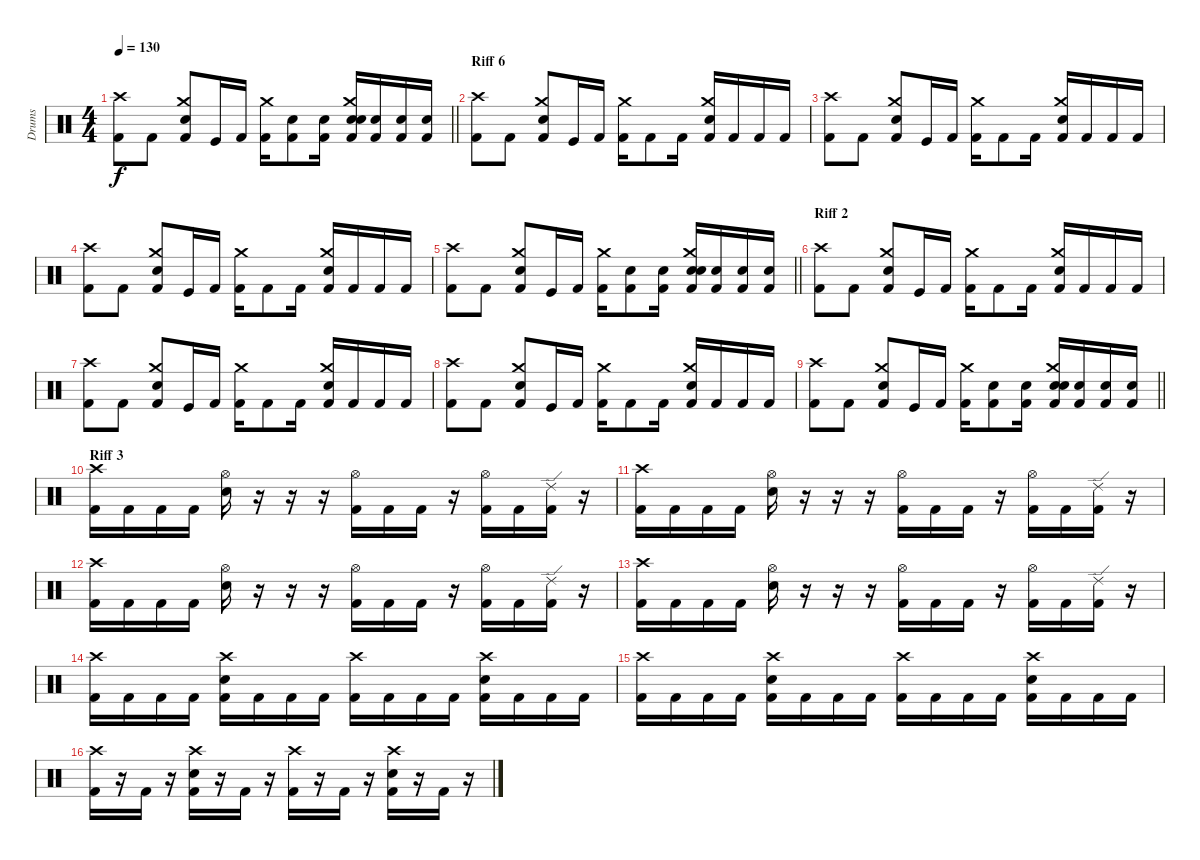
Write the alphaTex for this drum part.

\track ("Drums" "Drums") {instrument percussion}
\staff {score}
\articulation defaults
\ts (4 4)
\tempo 130
\clef neutral
\barLineRight lightlight
\ks c
("Crash high (hit)" "Kick (hit) 2").8{dy f} "Kick (hit) 2".8 ("Crash medium (hit)" "Electric Snare (hit)" "Kick (hit) 2").8 "Kick (hit)".16 "Kick (hit) 2".16 ("Crash medium (hit)" "Kick (hit) 2").16 ("Electric Snare (hit)" "Kick (hit) 2").8 ("Electric Snare (hit)" "Kick (hit) 2").16 ("Crash medium (hit)" "Electric Snare (hit)" "Electric Snare (hit)" "Kick (hit) 2").16 ("Electric Snare (hit)" "Kick (hit) 2").16 ("Electric Snare (hit)" "Kick (hit) 2").16 ("Electric Snare (hit)" "Kick (hit) 2").16 |
\section ("" "Riff 6")
("Crash high (hit)" "Kick (hit) 2").8 "Kick (hit) 2".8 ("Crash medium (hit)" "Electric Snare (hit)" "Kick (hit) 2").8 "Kick (hit)".16 "Kick (hit) 2".16 ("Crash medium (hit)" "Kick (hit) 2").16 "Kick (hit) 2".8 "Kick (hit) 2".16 ("Crash medium (hit)" "Electric Snare (hit)" "Kick (hit) 2").16 "Kick (hit) 2".16 "Kick (hit) 2".16 "Kick (hit) 2".16 |
("Crash high (hit)" "Kick (hit) 2").8 "Kick (hit) 2".8 ("Crash medium (hit)" "Electric Snare (hit)" "Kick (hit) 2").8 "Kick (hit)".16 "Kick (hit) 2".16 ("Crash medium (hit)" "Kick (hit) 2").16 "Kick (hit) 2".8 "Kick (hit) 2".16 ("Crash medium (hit)" "Electric Snare (hit)" "Kick (hit) 2").16 "Kick (hit) 2".16 "Kick (hit) 2".16 "Kick (hit) 2".16 |
("Crash high (hit)" "Kick (hit) 2").8 "Kick (hit) 2".8 ("Crash medium (hit)" "Electric Snare (hit)" "Kick (hit) 2").8 "Kick (hit)".16 "Kick (hit) 2".16 ("Crash medium (hit)" "Kick (hit) 2").16 "Kick (hit) 2".8 "Kick (hit) 2".16 ("Crash medium (hit)" "Electric Snare (hit)" "Kick (hit) 2").16 "Kick (hit) 2".16 "Kick (hit) 2".16 "Kick (hit) 2".16 |
\barLineRight lightlight
("Crash high (hit)" "Kick (hit) 2").8 "Kick (hit) 2".8 ("Crash medium (hit)" "Electric Snare (hit)" "Kick (hit) 2").8 "Kick (hit)".16 "Kick (hit) 2".16 ("Crash medium (hit)" "Kick (hit) 2").16 ("Electric Snare (hit)" "Kick (hit) 2").8 ("Electric Snare (hit)" "Kick (hit) 2").16 ("Crash medium (hit)" "Electric Snare (hit)" "Electric Snare (hit)" "Kick (hit) 2").16 ("Electric Snare (hit)" "Kick (hit) 2").16 ("Electric Snare (hit)" "Kick (hit) 2").16 ("Electric Snare (hit)" "Kick (hit) 2").16 |
\section ("" "Riff 2")
("Crash high (hit)" "Kick (hit) 2").8 "Kick (hit) 2".8 ("Crash medium (hit)" "Electric Snare (hit)" "Kick (hit) 2").8 "Kick (hit)".16 "Kick (hit) 2".16 ("Crash medium (hit)" "Kick (hit) 2").16 "Kick (hit) 2".8 "Kick (hit) 2".16 ("Crash medium (hit)" "Electric Snare (hit)" "Kick (hit) 2").16 "Kick (hit) 2".16 "Kick (hit) 2".16 "Kick (hit) 2".16 |
("Crash high (hit)" "Kick (hit) 2").8 "Kick (hit) 2".8 ("Crash medium (hit)" "Electric Snare (hit)" "Kick (hit) 2").8 "Kick (hit)".16 "Kick (hit) 2".16 ("Crash medium (hit)" "Kick (hit) 2").16 "Kick (hit) 2".8 "Kick (hit) 2".16 ("Crash medium (hit)" "Electric Snare (hit)" "Kick (hit) 2").16 "Kick (hit) 2".16 "Kick (hit) 2".16 "Kick (hit) 2".16 |
("Crash high (hit)" "Kick (hit) 2").8 "Kick (hit) 2".8 ("Crash medium (hit)" "Electric Snare (hit)" "Kick (hit) 2").8 "Kick (hit)".16 "Kick (hit) 2".16 ("Crash medium (hit)" "Kick (hit) 2").16 "Kick (hit) 2".8 "Kick (hit) 2".16 ("Crash medium (hit)" "Electric Snare (hit)" "Kick (hit) 2").16 "Kick (hit) 2".16 "Kick (hit) 2".16 "Kick (hit) 2".16 |
\barLineRight lightlight
("Crash high (hit)" "Kick (hit) 2").8 "Kick (hit) 2".8 ("Crash medium (hit)" "Electric Snare (hit)" "Kick (hit) 2").8 "Kick (hit)".16 "Kick (hit) 2".16 ("Crash medium (hit)" "Kick (hit) 2").16 ("Electric Snare (hit)" "Kick (hit) 2").8 ("Electric Snare (hit)" "Kick (hit) 2").16 ("Crash medium (hit)" "Electric Snare (hit)" "Electric Snare (hit)" "Kick (hit) 2").16 ("Electric Snare (hit)" "Kick (hit) 2").16 ("Electric Snare (hit)" "Kick (hit) 2").16 ("Electric Snare (hit)" "Kick (hit) 2").16 |
\section ("" "Riff 3")
("Crash high (hit)" "Kick (hit) 2").16 "Kick (hit) 2".16 "Kick (hit) 2".16 "Kick (hit) 2".16 ("Hi-Hat (open)" "Electric Snare (hit)").16 r.16 r.16 r.16 ("Hi-Hat (open)" "Kick (hit) 2").16 "Kick (hit) 2".16 "Kick (hit) 2".16 r.16 ("Hi-Hat (open)" "Kick (hit) 2").16 "Kick (hit) 2".16 ("Ride (edge) 2" "Kick (hit) 2").16 r.16 |
("Crash high (hit)" "Kick (hit) 2").16 "Kick (hit) 2".16 "Kick (hit) 2".16 "Kick (hit) 2".16 ("Hi-Hat (open)" "Electric Snare (hit)").16 r.16 r.16 r.16 ("Hi-Hat (open)" "Kick (hit) 2").16 "Kick (hit) 2".16 "Kick (hit) 2".16 r.16 ("Hi-Hat (open)" "Kick (hit) 2").16 "Kick (hit) 2".16 ("Ride (edge) 2" "Kick (hit) 2").16 r.16 |
("Crash high (hit)" "Kick (hit) 2").16 "Kick (hit) 2".16 "Kick (hit) 2".16 "Kick (hit) 2".16 ("Hi-Hat (open)" "Electric Snare (hit)").16 r.16 r.16 r.16 ("Hi-Hat (open)" "Kick (hit) 2").16 "Kick (hit) 2".16 "Kick (hit) 2".16 r.16 ("Hi-Hat (open)" "Kick (hit) 2").16 "Kick (hit) 2".16 ("Ride (edge) 2" "Kick (hit) 2").16 r.16 |
("Crash high (hit)" "Kick (hit) 2").16 "Kick (hit) 2".16 "Kick (hit) 2".16 "Kick (hit) 2".16 ("Hi-Hat (open)" "Electric Snare (hit)").16 r.16 r.16 r.16 ("Hi-Hat (open)" "Kick (hit) 2").16 "Kick (hit) 2".16 "Kick (hit) 2".16 r.16 ("Hi-Hat (open)" "Kick (hit) 2").16 "Kick (hit) 2".16 ("Ride (edge) 2" "Kick (hit) 2").16 r.16 |
("Crash high (hit)" "Kick (hit) 2").16 "Kick (hit) 2".16 "Kick (hit) 2".16 "Kick (hit) 2".16 ("Crash high (hit)" "Electric Snare (hit)" "Kick (hit) 2").16 "Kick (hit) 2".16 "Kick (hit) 2".16 "Kick (hit) 2".16 ("Crash high (hit)" "Kick (hit) 2").16 "Kick (hit) 2".16 "Kick (hit) 2".16 "Kick (hit) 2".16 ("Crash high (hit)" "Electric Snare (hit)" "Kick (hit) 2").16 "Kick (hit) 2".16 "Kick (hit) 2".16 "Kick (hit) 2".16 |
("Crash high (hit)" "Kick (hit) 2").16 "Kick (hit) 2".16 "Kick (hit) 2".16 "Kick (hit) 2".16 ("Crash high (hit)" "Electric Snare (hit)" "Kick (hit) 2").16 "Kick (hit) 2".16 "Kick (hit) 2".16 "Kick (hit) 2".16 ("Crash high (hit)" "Kick (hit) 2").16 "Kick (hit) 2".16 "Kick (hit) 2".16 "Kick (hit) 2".16 ("Crash high (hit)" "Electric Snare (hit)" "Kick (hit) 2").16 "Kick (hit) 2".16 "Kick (hit) 2".16 "Kick (hit) 2".16 |
("Crash high (hit)" "Kick (hit) 2").16 r.16 "Kick (hit) 2".16 r.16 ("Crash high (hit)" "Electric Snare (hit)" "Kick (hit) 2").16 r.16 "Kick (hit) 2".16 r.16 ("Crash high (hit)" "Kick (hit) 2").16 r.16 "Kick (hit) 2".16 r.16 ("Crash high (hit)" "Electric Snare (hit)" "Kick (hit) 2").16 r.16 "Kick (hit) 2".16 r.16
